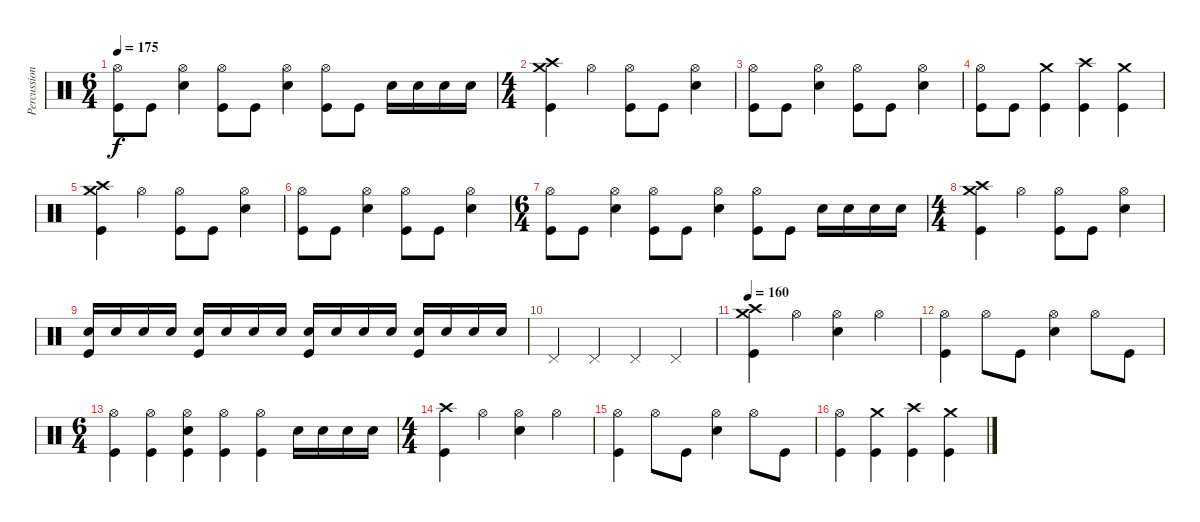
\track ("Percussion" "Percussion") {instrument percussion}
\staff {score}
\articulation defaults
\ts (6 4)
\tempo 175
\clef neutral
\ks c
("Hi-Hat (open)" "Kick (hit)").8{dy f} "Kick (hit)".8 ("Hi-Hat (open)" "Snare (hit) 2").4 ("Hi-Hat (open)" "Kick (hit)").8 "Kick (hit)".8 ("Hi-Hat (open)" "Snare (hit) 2").4 ("Hi-Hat (open)" "Kick (hit)").8 "Kick (hit)".8 "Snare (hit) 2".16 "Snare (hit) 2".16 "Snare (hit) 2".16 "Snare (hit) 2".16 |
\ts (4 4)
("Crash high (hit)" "Crash medium (hit)" "Kick (hit)").4 "Hi-Hat (open)".4 ("Hi-Hat (open)" "Kick (hit)").8 "Kick (hit)".8 ("Hi-Hat (open)" "Snare (hit) 2").4 |
("Hi-Hat (open)" "Kick (hit)").8 "Kick (hit)".8 ("Hi-Hat (open)" "Snare (hit) 2").4 ("Hi-Hat (open)" "Kick (hit)").8 "Kick (hit)".8 ("Hi-Hat (open)" "Snare (hit) 2").4 |
("Hi-Hat (open)" "Kick (hit)").8 "Kick (hit)".8 ("Crash medium (hit)" "Kick (hit)").4 ("Crash high (hit)" "Kick (hit)").4 ("Crash medium (hit)" "Kick (hit)").4 |
("Crash high (hit)" "Crash medium (hit)" "Kick (hit)").4 "Hi-Hat (open)".4 ("Hi-Hat (open)" "Kick (hit)").8 "Kick (hit)".8 ("Hi-Hat (open)" "Snare (hit) 2").4 |
("Hi-Hat (open)" "Kick (hit)").8 "Kick (hit)".8 ("Hi-Hat (open)" "Snare (hit) 2").4 ("Hi-Hat (open)" "Kick (hit)").8 "Kick (hit)".8 ("Hi-Hat (open)" "Snare (hit) 2").4 |
\ts (6 4)
("Hi-Hat (open)" "Kick (hit)").8 "Kick (hit)".8 ("Hi-Hat (open)" "Snare (hit) 2").4 ("Hi-Hat (open)" "Kick (hit)").8 "Kick (hit)".8 ("Hi-Hat (open)" "Snare (hit) 2").4 ("Hi-Hat (open)" "Kick (hit)").8 "Kick (hit)".8 "Snare (hit) 2".16 "Snare (hit) 2".16 "Snare (hit) 2".16 "Snare (hit) 2".16 |
\ts (4 4)
("Crash high (hit)" "Crash medium (hit)" "Kick (hit)").4 "Hi-Hat (open)".4 ("Hi-Hat (open)" "Kick (hit)").8 "Kick (hit)".8 ("Hi-Hat (open)" "Snare (hit) 2").4 |
("Snare (hit) 2" "Kick (hit)").16 "Snare (hit) 2".16 "Snare (hit) 2".16 "Snare (hit) 2".16 ("Snare (hit) 2" "Kick (hit)").16 "Snare (hit) 2".16 "Snare (hit) 2".16 "Snare (hit) 2".16 ("Snare (hit) 2" "Kick (hit)").16 "Snare (hit) 2".16 "Snare (hit) 2".16 "Snare (hit) 2".16 ("Snare (hit) 2" "Kick (hit)").16 "Snare (hit) 2".16 "Snare (hit) 2".16 "Snare (hit) 2".16 |
"Pedal Hi-Hat (hit)".4 "Pedal Hi-Hat (hit)".4 "Pedal Hi-Hat (hit)".4 "Pedal Hi-Hat (hit)".4 |
\tempo 160
("Crash medium (hit)" "Crash high (hit)" "Kick (hit)").4 "Hi-Hat (open)".4 ("Hi-Hat (open)" "Snare (hit) 2").4 "Hi-Hat (open)".4 |
("Hi-Hat (open)" "Kick (hit)").4 "Hi-Hat (open)".8 "Kick (hit)".8 ("Hi-Hat (open)" "Snare (hit) 2").4 "Hi-Hat (open)".8 "Kick (hit)".8 |
\ts (6 4)
("Hi-Hat (open)" "Kick (hit)").4 ("Hi-Hat (open)" "Kick (hit)").4 ("Hi-Hat (open)" "Snare (hit) 2" "Kick (hit)").4 ("Hi-Hat (open)" "Kick (hit)").4 ("Hi-Hat (open)" "Kick (hit)").4 "Snare (hit) 2".16 "Snare (hit) 2".16 "Snare (hit) 2".16 "Snare (hit) 2".16 |
\ts (4 4)
("Crash high (hit)" "Kick (hit)").4 "Hi-Hat (open)".4 ("Hi-Hat (open)" "Snare (hit) 2").4 "Hi-Hat (open)".4 |
("Hi-Hat (open)" "Kick (hit)").4 "Hi-Hat (open)".8 "Kick (hit)".8 ("Hi-Hat (open)" "Snare (hit) 2").4 "Hi-Hat (open)".8 "Kick (hit)".8 |
("Hi-Hat (open)" "Kick (hit)").4 ("Crash medium (hit)" "Kick (hit)").4 ("Crash high (hit)" "Kick (hit)").4 ("Crash medium (hit)" "Kick (hit)").4
